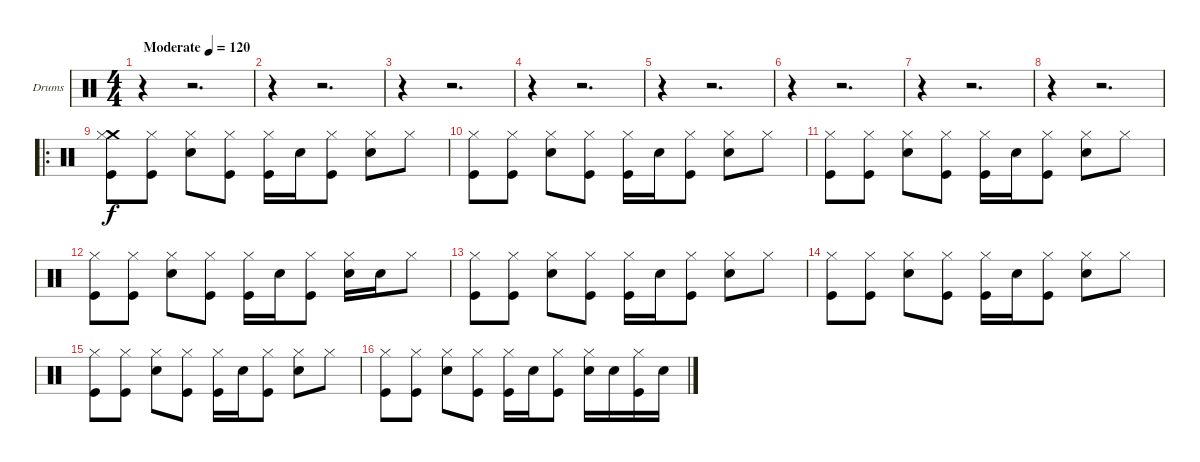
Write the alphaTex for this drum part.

\bracketExtendMode groupsimilarinstruments
\firstSystemTrackNameOrientation horizontal
\otherSystemsTrackNameOrientation horizontal
\track ("Drumkit" "Drums") {instrument percussion}
\staff {score}
\articulation defaults
\ts (4 4)
\beaming (8 2 2 2 2)
\tempo (120 "Moderate")
\clef neutral
\ks c
r.4{dy f} r.2{d} |
r.4 r.2{d} |
r.4 r.2{d} |
r.4 r.2{d} |
r.4 r.2{d} |
r.4 r.2{d} |
r.4 r.2{d} |
r.4 r.2{d} |
\ro
("Crash medium (hit)" "Hi-Hat (closed)" "Kick (hit)").8 ("Hi-Hat (closed)" "Kick (hit)").8 ("Hi-Hat (closed)" "Snare (hit) 2").8 ("Hi-Hat (closed)" "Kick (hit)").8 ("Hi-Hat (closed)" "Kick (hit)").16 "Snare (hit) 2".16 ("Hi-Hat (closed)" "Kick (hit)").8 ("Hi-Hat (closed)" "Snare (hit) 2").8 "Hi-Hat (closed)".8 |
("Hi-Hat (closed)" "Kick (hit)").8 ("Hi-Hat (closed)" "Kick (hit)").8 ("Hi-Hat (closed)" "Snare (hit) 2").8 ("Hi-Hat (closed)" "Kick (hit)").8 ("Hi-Hat (closed)" "Kick (hit)").16 "Snare (hit) 2".16 ("Hi-Hat (closed)" "Kick (hit)").8 ("Hi-Hat (closed)" "Snare (hit) 2").8 "Hi-Hat (closed)".8 |
("Hi-Hat (closed)" "Kick (hit)").8 ("Hi-Hat (closed)" "Kick (hit)").8 ("Hi-Hat (closed)" "Snare (hit) 2").8 ("Hi-Hat (closed)" "Kick (hit)").8 ("Hi-Hat (closed)" "Kick (hit)").16 "Snare (hit) 2".16 ("Hi-Hat (closed)" "Kick (hit)").8 ("Hi-Hat (closed)" "Snare (hit) 2").8 "Hi-Hat (closed)".8 |
("Hi-Hat (closed)" "Kick (hit)").8 ("Hi-Hat (closed)" "Kick (hit)").8 ("Hi-Hat (closed)" "Snare (hit) 2").8 ("Hi-Hat (closed)" "Kick (hit)").8 ("Hi-Hat (closed)" "Kick (hit)").16 "Snare (hit) 2".16 ("Hi-Hat (closed)" "Kick (hit)").8 ("Hi-Hat (closed)" "Snare (hit) 2").16 "Snare (hit) 2".16 "Hi-Hat (closed)".8 |
("Hi-Hat (closed)" "Kick (hit)").8 ("Hi-Hat (closed)" "Kick (hit)").8 ("Hi-Hat (closed)" "Snare (hit) 2").8 ("Hi-Hat (closed)" "Kick (hit)").8 ("Hi-Hat (closed)" "Kick (hit)").16 "Snare (hit) 2".16 ("Hi-Hat (closed)" "Kick (hit)").8 ("Hi-Hat (closed)" "Snare (hit) 2").8 "Hi-Hat (closed)".8 |
("Hi-Hat (closed)" "Kick (hit)").8 ("Hi-Hat (closed)" "Kick (hit)").8 ("Hi-Hat (closed)" "Snare (hit) 2").8 ("Hi-Hat (closed)" "Kick (hit)").8 ("Hi-Hat (closed)" "Kick (hit)").16 "Snare (hit) 2".16 ("Hi-Hat (closed)" "Kick (hit)").8 ("Hi-Hat (closed)" "Snare (hit) 2").8 "Hi-Hat (closed)".8 |
("Hi-Hat (closed)" "Kick (hit)").8 ("Hi-Hat (closed)" "Kick (hit)").8 ("Hi-Hat (closed)" "Snare (hit) 2").8 ("Hi-Hat (closed)" "Kick (hit)").8 ("Hi-Hat (closed)" "Kick (hit)").16 "Snare (hit) 2".16 ("Hi-Hat (closed)" "Kick (hit)").8 ("Hi-Hat (closed)" "Snare (hit) 2").8 "Hi-Hat (closed)".8 |
("Hi-Hat (closed)" "Kick (hit)").8 ("Hi-Hat (closed)" "Kick (hit)").8 ("Hi-Hat (closed)" "Snare (hit) 2").8 ("Hi-Hat (closed)" "Kick (hit)").8 ("Hi-Hat (closed)" "Kick (hit)").16 "Snare (hit) 2".16 ("Hi-Hat (closed)" "Kick (hit)").8 ("Hi-Hat (closed)" "Snare (hit) 2").16 "Snare (hit) 2".16 ("Hi-Hat (closed)" "Kick (hit)").16 "Snare (hit) 2".16
